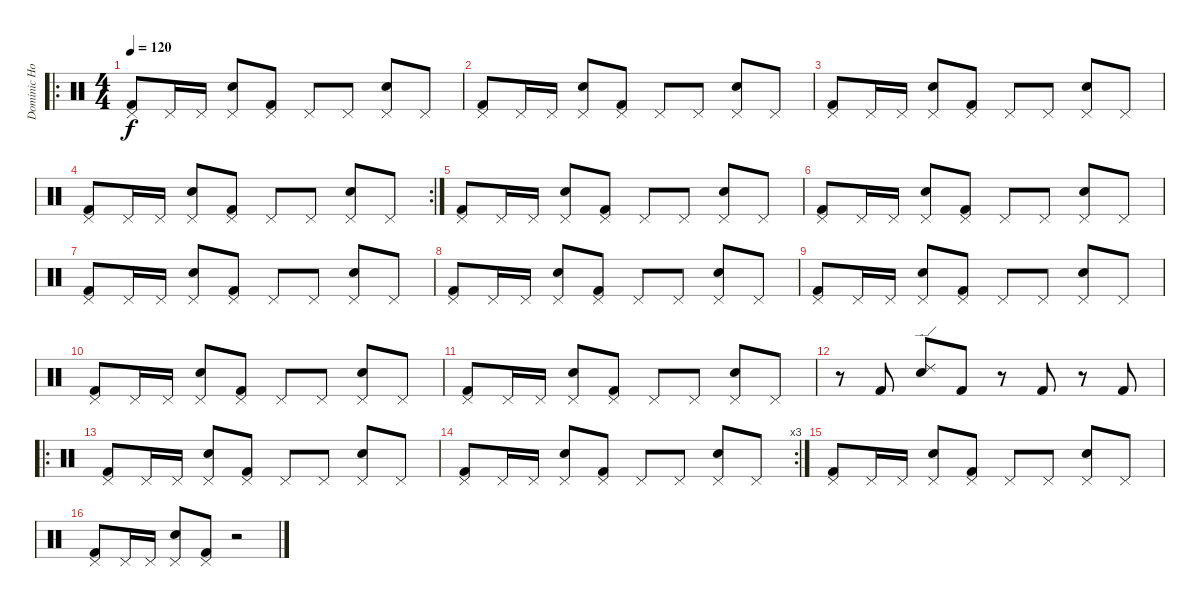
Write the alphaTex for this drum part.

\track ("Dominic Howard" "Dominic Ho") {instrument percussion}
\staff {score}
\articulation defaults
\ro
\ts (4 4)
\tempo 120
\clef neutral
\ks c
("Pedal Hi-Hat (hit)" "Kick (hit) 2").8{dy f} "Pedal Hi-Hat (hit)".16 "Pedal Hi-Hat (hit)".16 ("Pedal Hi-Hat (hit)" "Snare (hit) 2").8 ("Pedal Hi-Hat (hit)" "Kick (hit) 2").8 "Pedal Hi-Hat (hit)".8 "Pedal Hi-Hat (hit)".8 ("Pedal Hi-Hat (hit)" "Snare (hit) 2").8 "Pedal Hi-Hat (hit)".8 |
("Pedal Hi-Hat (hit)" "Kick (hit) 2").8 "Pedal Hi-Hat (hit)".16 "Pedal Hi-Hat (hit)".16 ("Pedal Hi-Hat (hit)" "Snare (hit) 2").8 ("Pedal Hi-Hat (hit)" "Kick (hit) 2").8 "Pedal Hi-Hat (hit)".8 "Pedal Hi-Hat (hit)".8 ("Pedal Hi-Hat (hit)" "Snare (hit) 2").8 "Pedal Hi-Hat (hit)".8 |
("Pedal Hi-Hat (hit)" "Kick (hit) 2").8 "Pedal Hi-Hat (hit)".16 "Pedal Hi-Hat (hit)".16 ("Pedal Hi-Hat (hit)" "Snare (hit) 2").8 ("Pedal Hi-Hat (hit)" "Kick (hit) 2").8 "Pedal Hi-Hat (hit)".8 "Pedal Hi-Hat (hit)".8 ("Pedal Hi-Hat (hit)" "Snare (hit) 2").8 "Pedal Hi-Hat (hit)".8 |
\rc 2
("Pedal Hi-Hat (hit)" "Kick (hit) 2").8 "Pedal Hi-Hat (hit)".16 "Pedal Hi-Hat (hit)".16 ("Pedal Hi-Hat (hit)" "Snare (hit) 2").8 ("Pedal Hi-Hat (hit)" "Kick (hit) 2").8 "Pedal Hi-Hat (hit)".8 "Pedal Hi-Hat (hit)".8 ("Pedal Hi-Hat (hit)" "Snare (hit) 2").8 "Pedal Hi-Hat (hit)".8 |
("Pedal Hi-Hat (hit)" "Kick (hit) 2").8 "Pedal Hi-Hat (hit)".16 "Pedal Hi-Hat (hit)".16 ("Pedal Hi-Hat (hit)" "Snare (hit) 2").8 ("Pedal Hi-Hat (hit)" "Kick (hit) 2").8 "Pedal Hi-Hat (hit)".8 "Pedal Hi-Hat (hit)".8 ("Pedal Hi-Hat (hit)" "Snare (hit) 2").8 "Pedal Hi-Hat (hit)".8 |
("Pedal Hi-Hat (hit)" "Kick (hit) 2").8 "Pedal Hi-Hat (hit)".16 "Pedal Hi-Hat (hit)".16 ("Pedal Hi-Hat (hit)" "Snare (hit) 2").8 ("Pedal Hi-Hat (hit)" "Kick (hit) 2").8 "Pedal Hi-Hat (hit)".8 "Pedal Hi-Hat (hit)".8 ("Pedal Hi-Hat (hit)" "Snare (hit) 2").8 "Pedal Hi-Hat (hit)".8 |
("Pedal Hi-Hat (hit)" "Kick (hit) 2").8 "Pedal Hi-Hat (hit)".16 "Pedal Hi-Hat (hit)".16 ("Pedal Hi-Hat (hit)" "Snare (hit) 2").8 ("Pedal Hi-Hat (hit)" "Kick (hit) 2").8 "Pedal Hi-Hat (hit)".8 "Pedal Hi-Hat (hit)".8 ("Pedal Hi-Hat (hit)" "Snare (hit) 2").8 "Pedal Hi-Hat (hit)".8 |
("Pedal Hi-Hat (hit)" "Kick (hit) 2").8 "Pedal Hi-Hat (hit)".16 "Pedal Hi-Hat (hit)".16 ("Pedal Hi-Hat (hit)" "Snare (hit) 2").8 ("Pedal Hi-Hat (hit)" "Kick (hit) 2").8 "Pedal Hi-Hat (hit)".8 "Pedal Hi-Hat (hit)".8 ("Pedal Hi-Hat (hit)" "Snare (hit) 2").8 "Pedal Hi-Hat (hit)".8 |
("Pedal Hi-Hat (hit)" "Kick (hit) 2").8 "Pedal Hi-Hat (hit)".16 "Pedal Hi-Hat (hit)".16 ("Pedal Hi-Hat (hit)" "Snare (hit) 2").8 ("Pedal Hi-Hat (hit)" "Kick (hit) 2").8 "Pedal Hi-Hat (hit)".8 "Pedal Hi-Hat (hit)".8 ("Pedal Hi-Hat (hit)" "Snare (hit) 2").8 "Pedal Hi-Hat (hit)".8 |
("Pedal Hi-Hat (hit)" "Kick (hit) 2").8 "Pedal Hi-Hat (hit)".16 "Pedal Hi-Hat (hit)".16 ("Pedal Hi-Hat (hit)" "Snare (hit) 2").8 ("Pedal Hi-Hat (hit)" "Kick (hit) 2").8 "Pedal Hi-Hat (hit)".8 "Pedal Hi-Hat (hit)".8 ("Pedal Hi-Hat (hit)" "Snare (hit) 2").8 "Pedal Hi-Hat (hit)".8 |
("Pedal Hi-Hat (hit)" "Kick (hit) 2").8 "Pedal Hi-Hat (hit)".16 "Pedal Hi-Hat (hit)".16 ("Pedal Hi-Hat (hit)" "Snare (hit) 2").8 ("Pedal Hi-Hat (hit)" "Kick (hit) 2").8 "Pedal Hi-Hat (hit)".8 "Pedal Hi-Hat (hit)".8 ("Pedal Hi-Hat (hit)" "Snare (hit) 2").8 "Pedal Hi-Hat (hit)".8 |
r.8 "Kick (hit) 2".8 ("Ride (edge) 2" "Snare (hit) 2").8 "Kick (hit) 2".8 r.8 "Kick (hit) 2".8 r.8 "Kick (hit) 2".8 |
\ro
("Pedal Hi-Hat (hit)" "Kick (hit) 2").8 "Pedal Hi-Hat (hit)".16 "Pedal Hi-Hat (hit)".16 ("Pedal Hi-Hat (hit)" "Snare (hit) 2").8 ("Pedal Hi-Hat (hit)" "Kick (hit) 2").8 "Pedal Hi-Hat (hit)".8 "Pedal Hi-Hat (hit)".8 ("Pedal Hi-Hat (hit)" "Snare (hit) 2").8 "Pedal Hi-Hat (hit)".8 |
\rc 3
("Pedal Hi-Hat (hit)" "Kick (hit) 2").8 "Pedal Hi-Hat (hit)".16 "Pedal Hi-Hat (hit)".16 ("Pedal Hi-Hat (hit)" "Snare (hit) 2").8 ("Pedal Hi-Hat (hit)" "Kick (hit) 2").8 "Pedal Hi-Hat (hit)".8 "Pedal Hi-Hat (hit)".8 ("Pedal Hi-Hat (hit)" "Snare (hit) 2").8 "Pedal Hi-Hat (hit)".8 |
("Pedal Hi-Hat (hit)" "Kick (hit) 2").8 "Pedal Hi-Hat (hit)".16 "Pedal Hi-Hat (hit)".16 ("Pedal Hi-Hat (hit)" "Snare (hit) 2").8 ("Pedal Hi-Hat (hit)" "Kick (hit) 2").8 "Pedal Hi-Hat (hit)".8 "Pedal Hi-Hat (hit)".8 ("Pedal Hi-Hat (hit)" "Snare (hit) 2").8 "Pedal Hi-Hat (hit)".8 |
("Pedal Hi-Hat (hit)" "Kick (hit) 2").8 "Pedal Hi-Hat (hit)".16 "Pedal Hi-Hat (hit)".16 ("Pedal Hi-Hat (hit)" "Snare (hit) 2").8 ("Pedal Hi-Hat (hit)" "Kick (hit) 2").8 r.2
